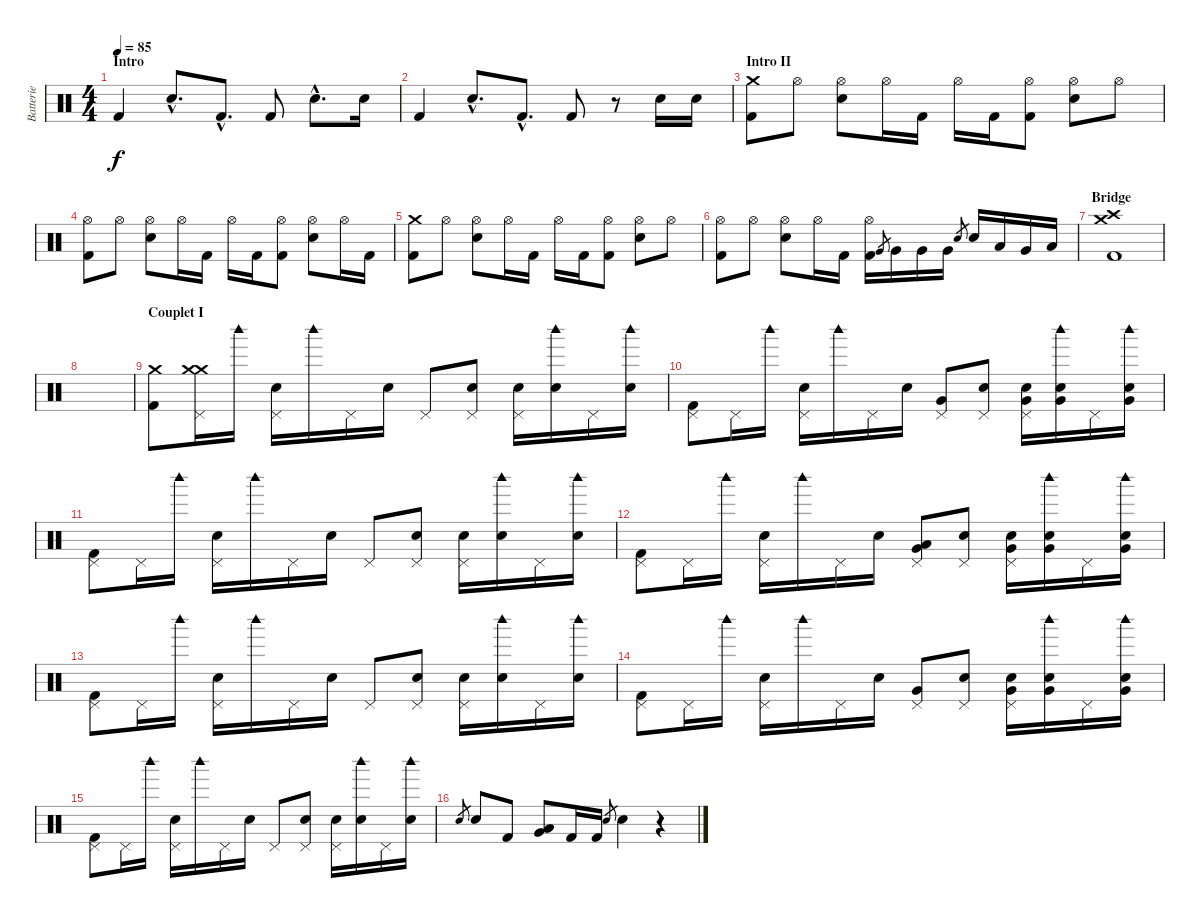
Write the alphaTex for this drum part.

\track ("Batterie" "Batterie") {instrument percussion}
\staff {score}
\articulation defaults
\ts (4 4)
\section ("" "Intro")
\tempo 85
\clef neutral
\ks c "Kick (hit) 2".4{dy f volume 5} "Electric Snare (hit)"{hac}.8{d} "Kick (hit) 2"{hac}.8{d} "Kick (hit) 2".8 "Electric Snare (hit)"{hac}.8{d} "Electric Snare (hit)".16
|
"Kick (hit) 2".4 "Electric Snare (hit)"{hac}.8{d} "Kick (hit) 2"{hac}.8{d} "Kick (hit) 2".8 r.8 "Electric Snare (hit)".16{volume 13} "Electric Snare (hit)".16 |
\section ("" "Intro II")
("Crash medium (hit)" "Kick (hit) 2").8 "Hi-Hat (open)".8 ("Hi-Hat (open)" "Electric Snare (hit)").8 "Hi-Hat (open)".16 "Kick (hit) 2".16 "Hi-Hat (open)".16 "Kick (hit) 2".16 ("Hi-Hat (open)" "Kick (hit) 2").8 ("Hi-Hat (open)" "Electric Snare (hit)").8 "Hi-Hat (open)".8 |
("Hi-Hat (open)" "Kick (hit) 2").8 "Hi-Hat (open)".8 ("Hi-Hat (open)" "Electric Snare (hit)").8 "Hi-Hat (open)".16 "Kick (hit) 2".16 "Hi-Hat (open)".16 "Kick (hit) 2".16 ("Hi-Hat (open)" "Kick (hit) 2").8 ("Hi-Hat (open)" "Electric Snare (hit)").8 "Hi-Hat (open)".16 "Kick (hit) 2".16 |
("Crash medium (hit)" "Kick (hit) 2").8 "Hi-Hat (open)".8 ("Hi-Hat (open)" "Electric Snare (hit)").8 "Hi-Hat (open)".16 "Kick (hit) 2".16 "Hi-Hat (open)".16 "Kick (hit) 2".16 ("Hi-Hat (open)" "Kick (hit) 2").8 ("Hi-Hat (open)" "Electric Snare (hit)").8 "Hi-Hat (open)".8 |
("Hi-Hat (open)" "Kick (hit) 2").8 "Hi-Hat (open)".8 ("Hi-Hat (open)" "Electric Snare (hit)").8 "Hi-Hat (open)".16 "Kick (hit) 2".16 ("Hi-Hat (open)" "Kick (hit) 2").16 "Very Low Tom (hit)".8{gr} "Very Low Tom (hit)".16 "Very Low Tom (hit)".16 "Very Low Tom (hit)".16 "Electric Snare (hit)".8{gr} "Electric Snare (hit)".16 "Low Tom (hit)".16 "Very Low Tom (hit)".16 "Low Floor Tom (hit)".16 |
\section ("" "Bridge")
("Crash medium (hit)" "Crash high (hit)" "Kick (hit) 2").1 |
|
\section ("" "Couplet I")
("Crash medium (hit)" "Kick (hit) 2").8 ("Crash medium (hit)" "Crash medium (hit)" "Pedal Hi-Hat (hit)").16{volume 6} "Woodblock high (hit)".16 ("Pedal Hi-Hat (hit)" "Electric Snare (hit)").16 "Woodblock high (hit)".16 "Pedal Hi-Hat (hit)".16 "Electric Snare (hit)".16 "Pedal Hi-Hat (hit)".8 ("Pedal Hi-Hat (hit)" "Electric Snare (hit)").8 ("Pedal Hi-Hat (hit)" "Electric Snare (hit)").16 ("Electric Snare (hit)" "Woodblock high (hit)").16 "Pedal Hi-Hat (hit)".16 ("Electric Snare (hit)" "Woodblock high (hit)").16 |
("Pedal Hi-Hat (hit)" "Kick (hit) 2").8 "Pedal Hi-Hat (hit)".16 "Woodblock high (hit)".16 ("Pedal Hi-Hat (hit)" "Electric Snare (hit)").16 "Woodblock high (hit)".16 "Pedal Hi-Hat (hit)".16 "Electric Snare (hit)".16 ("Pedal Hi-Hat (hit)" "Very Low Tom (hit)").8 ("Pedal Hi-Hat (hit)" "Electric Snare (hit)").8 ("Pedal Hi-Hat (hit)" "Electric Snare (hit)" "Very Low Tom (hit)").16 ("Electric Snare (hit)" "Woodblock high (hit)" "Very Low Tom (hit)").16 "Pedal Hi-Hat (hit)".16 ("Electric Snare (hit)" "Woodblock high (hit)" "Very Low Tom (hit)").16 |
("Pedal Hi-Hat (hit)" "Kick (hit) 2").8 "Pedal Hi-Hat (hit)".16 "Woodblock high (hit)".16 ("Pedal Hi-Hat (hit)" "Electric Snare (hit)").16 "Woodblock high (hit)".16 "Pedal Hi-Hat (hit)".16 "Electric Snare (hit)".16 "Pedal Hi-Hat (hit)".8 ("Pedal Hi-Hat (hit)" "Electric Snare (hit)").8 ("Pedal Hi-Hat (hit)" "Electric Snare (hit)").16 ("Electric Snare (hit)" "Woodblock high (hit)").16 "Pedal Hi-Hat (hit)".16 ("Electric Snare (hit)" "Woodblock high (hit)").16 |
("Pedal Hi-Hat (hit)" "Kick (hit) 2").8 "Pedal Hi-Hat (hit)".16 "Woodblock high (hit)".16 ("Pedal Hi-Hat (hit)" "Electric Snare (hit)").16 "Woodblock high (hit)".16 "Pedal Hi-Hat (hit)".16 "Electric Snare (hit)".16 ("Pedal Hi-Hat (hit)" "Low Tom (hit)" "Very Low Tom (hit)").8 ("Pedal Hi-Hat (hit)" "Electric Snare (hit)").8 ("Pedal Hi-Hat (hit)" "Electric Snare (hit)" "Very Low Tom (hit)").16 ("Electric Snare (hit)" "Woodblock high (hit)" "Very Low Tom (hit)").16 "Pedal Hi-Hat (hit)".16 ("Electric Snare (hit)" "Woodblock high (hit)" "Very Low Tom (hit)").16 |
("Pedal Hi-Hat (hit)" "Kick (hit) 2").8 "Pedal Hi-Hat (hit)".16 "Woodblock high (hit)".16 ("Pedal Hi-Hat (hit)" "Electric Snare (hit)").16 "Woodblock high (hit)".16 "Pedal Hi-Hat (hit)".16 "Electric Snare (hit)".16 "Pedal Hi-Hat (hit)".8 ("Pedal Hi-Hat (hit)" "Electric Snare (hit)").8 ("Pedal Hi-Hat (hit)" "Electric Snare (hit)").16 ("Electric Snare (hit)" "Woodblock high (hit)").16 "Pedal Hi-Hat (hit)".16 ("Electric Snare (hit)" "Woodblock high (hit)").16 |
("Pedal Hi-Hat (hit)" "Kick (hit) 2").8 "Pedal Hi-Hat (hit)".16 "Woodblock high (hit)".16 ("Pedal Hi-Hat (hit)" "Electric Snare (hit)").16 "Woodblock high (hit)".16 "Pedal Hi-Hat (hit)".16 "Electric Snare (hit)".16 ("Pedal Hi-Hat (hit)" "Very Low Tom (hit)").8 ("Pedal Hi-Hat (hit)" "Electric Snare (hit)").8 ("Pedal Hi-Hat (hit)" "Electric Snare (hit)" "Very Low Tom (hit)").16 ("Electric Snare (hit)" "Woodblock high (hit)" "Very Low Tom (hit)").16 "Pedal Hi-Hat (hit)".16 ("Electric Snare (hit)" "Woodblock high (hit)" "Very Low Tom (hit)").16 |
("Pedal Hi-Hat (hit)" "Kick (hit) 2").8 "Pedal Hi-Hat (hit)".16 "Woodblock high (hit)".16 ("Pedal Hi-Hat (hit)" "Electric Snare (hit)").16 "Woodblock high (hit)".16 "Pedal Hi-Hat (hit)".16 "Electric Snare (hit)".16 "Pedal Hi-Hat (hit)".8 ("Pedal Hi-Hat (hit)" "Electric Snare (hit)").8 ("Pedal Hi-Hat (hit)" "Electric Snare (hit)").16 ("Electric Snare (hit)" "Woodblock high (hit)").16 "Pedal Hi-Hat (hit)".16 ("Electric Snare (hit)" "Woodblock high (hit)").16 |
"Electric Snare (hit)".8{gr} "Electric Snare (hit)".8{volume 8} "Kick (hit) 2".8 ("Very Low Tom (hit)" "Low Floor Tom (hit)").8 "Kick (hit) 2".16 "Kick (hit) 2".16 "Electric Snare (hit)".8{gr} "Electric Snare (hit)".4{volume 13} r.4
